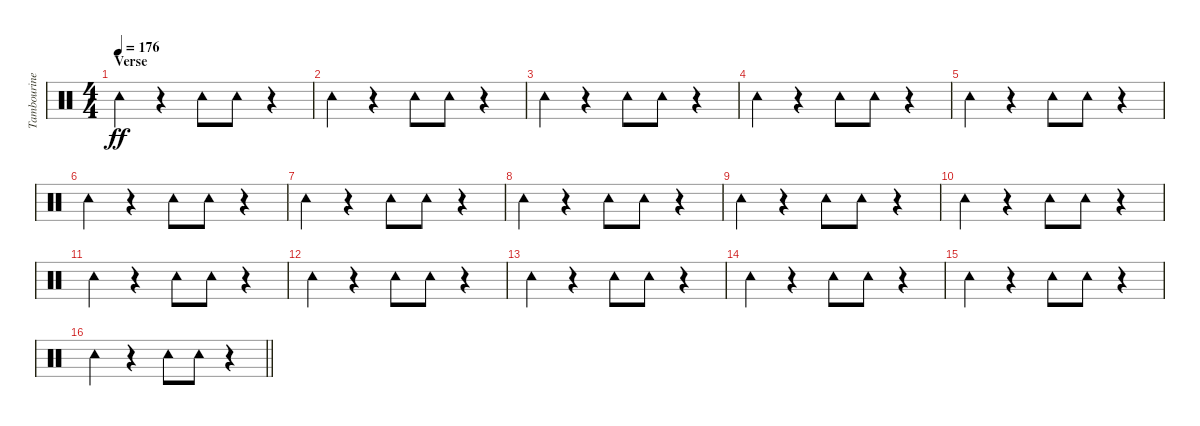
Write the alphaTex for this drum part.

\track ("Tambourine" "Tambourine") {instrument percussion}
\staff {score}
\articulation defaults
\ts (4 4)
\section ("" "Verse")
\tempo 176
\clef neutral
\ks c "Tambourine (hit)".4{dy ff}
r.4 "Tambourine (hit)".8 "Tambourine (hit)".8 r.4 |
"Tambourine (hit)".4 r.4 "Tambourine (hit)".8 "Tambourine (hit)".8 r.4 |
"Tambourine (hit)".4 r.4 "Tambourine (hit)".8 "Tambourine (hit)".8 r.4 |
"Tambourine (hit)".4 r.4 "Tambourine (hit)".8 "Tambourine (hit)".8 r.4 |
"Tambourine (hit)".4 r.4 "Tambourine (hit)".8 "Tambourine (hit)".8 r.4 |
"Tambourine (hit)".4 r.4 "Tambourine (hit)".8 "Tambourine (hit)".8 r.4 |
"Tambourine (hit)".4 r.4 "Tambourine (hit)".8 "Tambourine (hit)".8 r.4 |
"Tambourine (hit)".4 r.4 "Tambourine (hit)".8 "Tambourine (hit)".8 r.4 |
"Tambourine (hit)".4 r.4 "Tambourine (hit)".8 "Tambourine (hit)".8 r.4 |
"Tambourine (hit)".4 r.4 "Tambourine (hit)".8 "Tambourine (hit)".8 r.4 |
"Tambourine (hit)".4 r.4 "Tambourine (hit)".8 "Tambourine (hit)".8 r.4 |
"Tambourine (hit)".4 r.4 "Tambourine (hit)".8 "Tambourine (hit)".8 r.4 |
"Tambourine (hit)".4 r.4 "Tambourine (hit)".8 "Tambourine (hit)".8 r.4 |
"Tambourine (hit)".4 r.4 "Tambourine (hit)".8 "Tambourine (hit)".8 r.4 |
"Tambourine (hit)".4 r.4 "Tambourine (hit)".8 "Tambourine (hit)".8 r.4 |
\barLineRight lightlight "Tambourine (hit)".4
r.4 "Tambourine (hit)".8 "Tambourine (hit)".8 r.4
